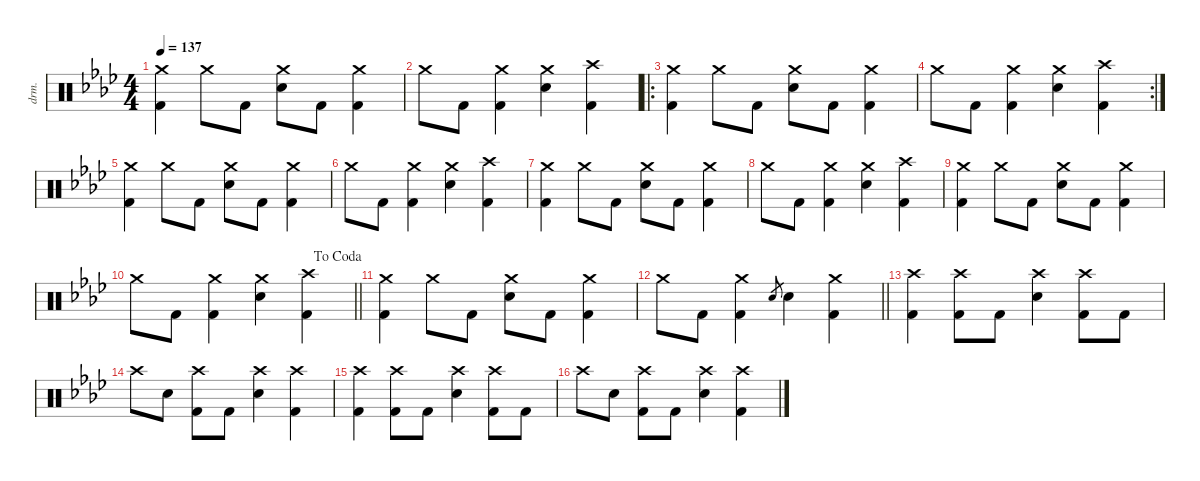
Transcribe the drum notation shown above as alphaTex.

\defaultSystemsLayout 4
\hideDynamics
\bracketExtendMode nobrackets
\otherSystemsTrackNameOrientation horizontal
\track ("Drums" "drm.") {defaultSystemsLayout 4 instrument percussion}
\staff {score}
\articulation defaults
\ts (4 4)
\tempo 137
\clef neutral
\ks ab
("Crash medium (hit)"{acc forcenatural} "Kick (hit) 2"{acc forcenatural}).4{dy f beam Down} "Crash medium (hit)"{acc forcenatural}.8{beam Down} "Kick (hit) 2"{acc forcenatural}.8{beam Down} ("Crash medium (hit)"{acc forcenatural} "Snare (hit) 2"{acc forcenatural}).8{beam Down} "Kick (hit) 2"{acc forcenatural}.8{beam Down} ("Crash medium (hit)"{acc forcenatural} "Kick (hit) 2"{acc forcenatural}).4{beam Down} |
"Crash medium (hit)"{acc forcenatural}.8{beam Down} "Kick (hit) 2"{acc forcenatural}.8{beam Down} ("Crash medium (hit)"{acc forcenatural} "Kick (hit) 2"{acc forcenatural}).4{beam Down} ("Crash medium (hit)"{acc forcenatural} "Snare (hit) 2"{acc forcenatural}).4{beam Down} ("Crash high (hit)"{acc forcenatural} "Kick (hit) 2"{acc forcenatural}).4{beam Down} |
\ro
("Crash medium (hit)"{acc forcenatural} "Kick (hit) 2"{acc forcenatural}).4{beam Down} "Crash medium (hit)"{acc forcenatural}.8{beam Down} "Kick (hit) 2"{acc forcenatural}.8{beam Down} ("Crash medium (hit)"{acc forcenatural} "Snare (hit) 2"{acc forcenatural}).8{beam Down} "Kick (hit) 2"{acc forcenatural}.8{beam Down} ("Crash medium (hit)"{acc forcenatural} "Kick (hit) 2"{acc forcenatural}).4{beam Down} |
\rc 2 "Crash medium (hit)"{acc forcenatural}.8{beam Down} "Kick (hit) 2"{acc forcenatural}.8{beam Down}
("Crash medium (hit)"{acc forcenatural} "Kick (hit) 2"{acc forcenatural}).4{beam Down} ("Crash medium (hit)"{acc forcenatural} "Snare (hit) 2"{acc forcenatural}).4{beam Down} ("Crash high (hit)"{acc forcenatural} "Kick (hit) 2"{acc forcenatural}).4{beam Down} |
("Crash medium (hit)"{acc forcenatural} "Kick (hit) 2"{acc forcenatural}).4{beam Down} "Crash medium (hit)"{acc forcenatural}.8{beam Down} "Kick (hit) 2"{acc forcenatural}.8{beam Down} ("Crash medium (hit)"{acc forcenatural} "Snare (hit) 2"{acc forcenatural}).8{beam Down} "Kick (hit) 2"{acc forcenatural}.8{beam Down} ("Crash medium (hit)"{acc forcenatural} "Kick (hit) 2"{acc forcenatural}).4{beam Down} |
"Crash medium (hit)"{acc forcenatural}.8{beam Down} "Kick (hit) 2"{acc forcenatural}.8{beam Down} ("Crash medium (hit)"{acc forcenatural} "Kick (hit) 2"{acc forcenatural}).4{beam Down} ("Crash medium (hit)"{acc forcenatural} "Snare (hit) 2"{acc forcenatural}).4{beam Down} ("Crash high (hit)"{acc forcenatural} "Kick (hit) 2"{acc forcenatural}).4{beam Down} |
("Crash medium (hit)"{acc forcenatural} "Kick (hit) 2"{acc forcenatural}).4{beam Down} "Crash medium (hit)"{acc forcenatural}.8{beam Down} "Kick (hit) 2"{acc forcenatural}.8{beam Down} ("Crash medium (hit)"{acc forcenatural} "Snare (hit) 2"{acc forcenatural}).8{beam Down} "Kick (hit) 2"{acc forcenatural}.8{beam Down} ("Crash medium (hit)"{acc forcenatural} "Kick (hit) 2"{acc forcenatural}).4{beam Down} |
"Crash medium (hit)"{acc forcenatural}.8{beam Down} "Kick (hit) 2"{acc forcenatural}.8{beam Down} ("Crash medium (hit)"{acc forcenatural} "Kick (hit) 2"{acc forcenatural}).4{beam Down} ("Crash medium (hit)"{acc forcenatural} "Snare (hit) 2"{acc forcenatural}).4{beam Down} ("Crash high (hit)"{acc forcenatural} "Kick (hit) 2"{acc forcenatural}).4{beam Down} |
("Crash medium (hit)"{acc forcenatural} "Kick (hit) 2"{acc forcenatural}).4{beam Down} "Crash medium (hit)"{acc forcenatural}.8{beam Down} "Kick (hit) 2"{acc forcenatural}.8{beam Down} ("Crash medium (hit)"{acc forcenatural} "Snare (hit) 2"{acc forcenatural}).8{beam Down} "Kick (hit) 2"{acc forcenatural}.8{beam Down} ("Crash medium (hit)"{acc forcenatural} "Kick (hit) 2"{acc forcenatural}).4{beam Down} |
\jump dacoda
\barLineRight lightlight "Crash medium (hit)"{acc forcenatural}.8{beam Down} "Kick (hit) 2"{acc forcenatural}.8{beam Down}
("Crash medium (hit)"{acc forcenatural} "Kick (hit) 2"{acc forcenatural}).4{beam Down} ("Crash medium (hit)"{acc forcenatural} "Snare (hit) 2"{acc forcenatural}).4{beam Down} ("Crash high (hit)"{acc forcenatural} "Kick (hit) 2"{acc forcenatural}).4{beam Down} |
("Crash medium (hit)"{acc forcenatural} "Kick (hit) 2"{acc forcenatural}).4{beam Down} "Crash medium (hit)"{acc forcenatural}.8{beam Down} "Kick (hit) 2"{acc forcenatural}.8{beam Down} ("Crash medium (hit)"{acc forcenatural} "Snare (hit) 2"{acc forcenatural}).8{beam Down} "Kick (hit) 2"{acc forcenatural}.8{beam Down} ("Crash medium (hit)"{acc forcenatural} "Kick (hit) 2"{acc forcenatural}).4{beam Down} |
\barLineRight lightlight "Crash medium (hit)"{acc forcenatural}.8{beam Down} "Kick (hit) 2"{acc forcenatural}.8{beam Down}
("Crash medium (hit)"{acc forcenatural} "Kick (hit) 2"{acc forcenatural}).4{beam Down} "Electric Snare (hit)"{acc forcenatural}.8{gr dy mf beam Up} "Snare (hit) 2"{acc forcenatural}.4{dy f beam Down} ("Crash medium (hit)"{acc forcenatural} "Kick (hit) 2"{acc forcenatural}).4{beam Down} |
("Crash high (hit)"{acc forcenatural} "Kick (hit) 2"{acc forcenatural}).4{beam Down} ("Crash high (hit)"{acc forcenatural} "Kick (hit) 2"{acc forcenatural}).8{beam Down} "Kick (hit) 2"{acc forcenatural}.8{beam Down} ("Crash high (hit)"{acc forcenatural} "Snare (hit) 2"{acc forcenatural}).4{beam Down} ("Crash high (hit)"{acc forcenatural} "Kick (hit) 2"{acc forcenatural}).8{beam Down} "Kick (hit) 2"{acc forcenatural}.8{beam Down} |
"Crash high (hit)"{acc forcenatural}.8{beam Down} "Snare (hit) 2"{acc forcenatural}.8{beam Down} ("Crash high (hit)"{acc forcenatural} "Kick (hit) 2"{acc forcenatural}).8{beam Down} "Kick (hit) 2"{acc forcenatural}.8{beam Down} ("Crash high (hit)"{acc forcenatural} "Snare (hit) 2"{acc forcenatural}).4{beam Down} ("Crash high (hit)"{acc forcenatural} "Kick (hit) 2"{acc forcenatural}).4{beam Down} |
("Crash high (hit)"{acc forcenatural} "Kick (hit) 2"{acc forcenatural}).4{beam Down} ("Crash high (hit)"{acc forcenatural} "Kick (hit) 2"{acc forcenatural}).8{beam Down} "Kick (hit) 2"{acc forcenatural}.8{beam Down} ("Crash high (hit)"{acc forcenatural} "Snare (hit) 2"{acc forcenatural}).4{beam Down} ("Crash high (hit)"{acc forcenatural} "Kick (hit) 2"{acc forcenatural}).8{beam Down} "Kick (hit) 2"{acc forcenatural}.8{beam Down} |
"Crash high (hit)"{acc forcenatural}.8{beam Down} "Snare (hit) 2"{acc forcenatural}.8{beam Down} ("Crash high (hit)"{acc forcenatural} "Kick (hit) 2"{acc forcenatural}).8{beam Down} "Kick (hit) 2"{acc forcenatural}.8{beam Down} ("Crash high (hit)"{acc forcenatural} "Snare (hit) 2"{acc forcenatural}).4{beam Down} ("Crash high (hit)"{acc forcenatural} "Kick (hit) 2"{acc forcenatural}).4{beam Down}
